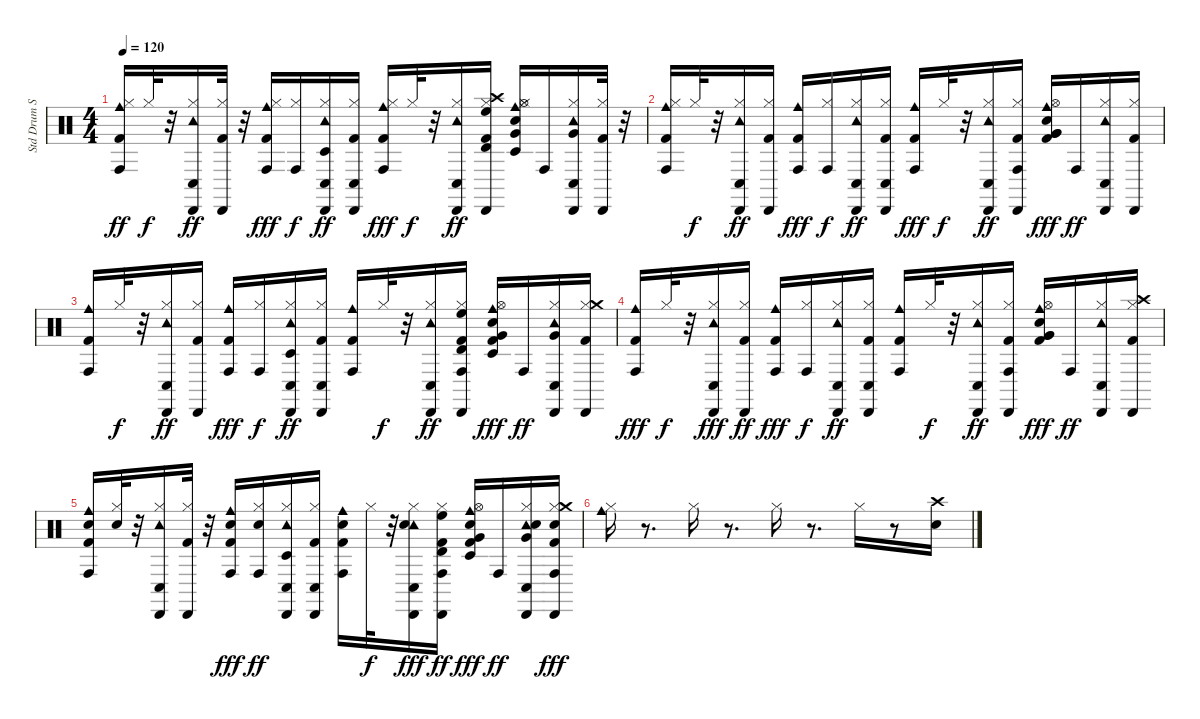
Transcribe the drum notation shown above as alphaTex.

\track ("Std Drum Set" "Std Drum S") {instrument percussion}
\staff {score}
\articulation defaults
\ts (4 4)
\tempo 120
\clef neutral
\ks c
("Hi-Hat (closed)" "Kick (hit) 2" "Cowbell medium (hit)" "Conga high (hit)").16{dy ff} "Hi-Hat (closed)".32{dy f} r.32 ("Hi-Hat (closed)" "Cabasa (hit)" "Tambourine (hit)" "Conga low (hit)").16{dy ff} ("Cabasa (hit)" "Hi-Hat (closed)" "Kick (hit) 2").32 r.32 ("Conga high (hit)" "Kick (hit) 2" "Cowbell medium (hit)" "Hi-Hat (closed)").16{dy fff} ("Conga high (hit)" "Hi-Hat (closed)").16{dy f} ("Hi-Hat (closed)" "Timbale low (hit)" "Cabasa (hit)" "Tambourine (hit)" "Conga low (hit)").16{dy ff} ("Cabasa (hit)" "Conga low (hit)" "Kick (hit) 2" "Hi-Hat (closed)").16 ("Kick (hit) 2" "Cowbell medium (hit)" "Conga high (hit)" "Hi-Hat (closed)").16{dy fff} "Hi-Hat (closed)".32{dy f} r.32 ("Cabasa (hit)" "Tambourine (hit)" "Hi-Hat (closed)" "Conga low (hit)").16{dy ff} ("Hi-Hat (closed)" "High Floor Tom (hit)" "Timbale high (hit)" "Kick (hit) 2" "Cabasa (hit)" "Crash high (hit)").16 ("Timbale low (hit)" "Cowbell medium (hit)" "Very Low Tom (hit)" "Hi-Hat (closed)" "Hi-Hat (open)" "Electric Snare (hit)").16 "Conga high (hit)".16 ("Tambourine (hit)" "Cabasa (hit)" "Conga low (hit)" "Very Low Tom (hit)" "Hi-Hat (closed)").16 ("Kick (hit) 2" "Hi-Hat (closed)" "Cabasa (hit)").32 r.32 |
("Kick (hit) 2" "Hi-Hat (closed)" "Cowbell medium (hit)" "Conga high (hit)").16 "Hi-Hat (closed)".32{dy f} r.32 ("Hi-Hat (closed)" "Tambourine (hit)" "Cabasa (hit)" "Conga low (hit)").16{dy ff} ("Hi-Hat (closed)" "Kick (hit) 2" "Cabasa (hit)").16 ("Conga high (hit)" "Cowbell medium (hit)" "Kick (hit) 2").16{dy fff} ("Hi-Hat (closed)" "Conga high (hit)").16{dy f} ("Hi-Hat (closed)" "Conga low (hit)" "Tambourine (hit)" "Cabasa (hit)").16{dy ff} ("Cabasa (hit)" "Conga low (hit)" "Hi-Hat (closed)" "Kick (hit) 2").16 ("Conga high (hit)" "Kick (hit) 2" "Cowbell medium (hit)").16{dy fff} "Hi-Hat (closed)".32{dy f} r.32 ("Cabasa (hit)" "Conga low (hit)" "Hi-Hat (closed)" "Tambourine (hit)").16{dy ff} ("Conga high (hit)" "Hi-Hat (closed)" "Kick (hit) 2" "Cabasa (hit)").16 ("Kick (hit) 2" "Electric Snare (hit)" "Hi-Hat (open)" "Cowbell medium (hit)" "Very Low Tom (hit)" "Very Low Tom (hit)").16{dy fff} "Conga high (hit)".16{dy ff} ("Cabasa (hit)" "Tambourine (hit)" "Hi-Hat (closed)" "Conga low (hit)").16 ("Hi-Hat (closed)" "Kick (hit) 2" "Cabasa (hit)").16 |
("Cowbell medium (hit)" "Kick (hit) 2" "Conga high (hit)").16 "Hi-Hat (closed)".32{dy f} r.32 ("Hi-Hat (closed)" "Tambourine (hit)" "Conga low (hit)" "Cabasa (hit)").16{dy ff} ("Hi-Hat (closed)" "Cabasa (hit)" "Kick (hit) 2").16 ("Kick (hit) 2" "Conga high (hit)" "Cowbell medium (hit)").16{dy fff} ("Conga high (hit)" "Hi-Hat (closed)").16{dy f} ("Cabasa (hit)" "Conga low (hit)" "Timbale low (hit)" "Hi-Hat (closed)" "Tambourine (hit)").16{dy ff} ("Hi-Hat (closed)" "Kick (hit) 2" "Cabasa (hit)" "Conga low (hit)").16 ("Cowbell medium (hit)" "Kick (hit) 2" "Conga high (hit)").16 "Hi-Hat (closed)".32{dy f} r.32 ("Hi-Hat (closed)" "Cabasa (hit)" "Tambourine (hit)" "Conga low (hit)").16{dy ff} ("Cabasa (hit)" "Conga high (hit)" "Kick (hit) 2" "High Floor Tom (hit)" "Timbale high (hit)" "Hi-Hat (closed)").16 ("Kick (hit) 2" "Cowbell medium (hit)" "Very Low Tom (hit)" "Timbale low (hit)" "Hi-Hat (open)" "Electric Snare (hit)").16{dy fff} "Conga high (hit)".16{dy ff} ("Very Low Tom (hit)" "Conga low (hit)" "Hi-Hat (closed)" "Tambourine (hit)" "Cabasa (hit)").16 ("Hi-Hat (closed)" "Crash medium (hit)" "Cabasa (hit)" "Kick (hit) 2").16 |
("Cowbell medium (hit)" "Conga high (hit)" "Kick (hit) 2").16{dy fff} "Hi-Hat (closed)".32{dy f} r.32 ("Conga low (hit)" "Tambourine (hit)" "Hi-Hat (closed)" "Cabasa (hit)").16{dy fff} ("Cabasa (hit)" "Hi-Hat (closed)" "Kick (hit) 2").16{dy ff} ("Kick (hit) 2" "Conga high (hit)" "Cowbell medium (hit)").16{dy fff} ("Conga high (hit)" "Hi-Hat (closed)").16{dy f} ("Cabasa (hit)" "Tambourine (hit)" "Conga low (hit)" "Hi-Hat (closed)").16{dy ff} ("Kick (hit) 2" "Conga low (hit)" "Cabasa (hit)" "Hi-Hat (closed)").16 ("Kick (hit) 2" "Cowbell medium (hit)" "Conga high (hit)").16 "Hi-Hat (closed)".32{dy f} r.32 ("Conga low (hit)" "Cabasa (hit)" "Hi-Hat (closed)" "Tambourine (hit)").16{dy ff} ("Cabasa (hit)" "Kick (hit) 2" "Hi-Hat (closed)" "Conga high (hit)").16 ("Very Low Tom (hit)" "Very Low Tom (hit)" "Hi-Hat (open)" "Cowbell medium (hit)" "Kick (hit) 2" "Electric Snare (hit)").16{dy fff} "Conga high (hit)".16{dy ff} ("Tambourine (hit)" "Conga low (hit)" "Cabasa (hit)" "Hi-Hat (closed)").16 ("Crash high (hit)" "Kick (hit) 2" "Cabasa (hit)" "Hi-Hat (closed)").16 |
("Conga high (hit)" "Cowbell medium (hit)" "Kick (hit) 2" "Electric Snare (hit)").16 ("Electric Snare (hit)" "Hi-Hat (closed)").32 r.32 ("Tambourine (hit)" "Hi-Hat (closed)" "Cabasa (hit)" "Conga low (hit)").16 ("Hi-Hat (closed)" "Cabasa (hit)" "Kick (hit) 2").32 r.32 ("Cowbell medium (hit)" "Kick (hit) 2" "Conga high (hit)" "Electric Snare (hit)").16{dy fff} ("Electric Snare (hit)" "Conga high (hit)" "Hi-Hat (closed)").16{dy ff} ("Timbale low (hit)" "Conga low (hit)" "Cabasa (hit)" "Tambourine (hit)" "Hi-Hat (closed)").16 ("Conga low (hit)" "Hi-Hat (closed)" "Kick (hit) 2" "Cabasa (hit)").16 ("Cowbell medium (hit)" "Kick (hit) 2" "Electric Snare (hit)" "Conga high (hit)").16 "Hi-Hat (closed)".32{dy f} r.32 ("Conga low (hit)" "Cabasa (hit)" "Tambourine (hit)" "Hi-Hat (closed)" "Electric Snare (hit)").16{dy fff} ("Kick (hit) 2" "Hi-Hat (closed)" "Conga high (hit)" "High Floor Tom (hit)" "Timbale high (hit)" "Cabasa (hit)").16{dy ff} ("Very Low Tom (hit)" "Electric Snare (hit)" "Kick (hit) 2" "Cowbell medium (hit)" "Hi-Hat (open)" "Timbale low (hit)").16{dy fff} "Conga high (hit)".16{dy ff} ("Conga low (hit)" "Cabasa (hit)" "Hi-Hat (closed)" "Tambourine (hit)" "Electric Snare (hit)" "Very Low Tom (hit)").16 ("Electric Snare (hit)" "Cabasa (hit)" "Hi-Hat (closed)" "Kick (hit) 2" "Conga high (hit)" "Crash medium (hit)").16{dy fff} |
("Hi-Hat (closed)" "Cowbell medium (hit)").16 r.8{d} "Hi-Hat (closed)".16 r.8{d} "Hi-Hat (closed)".16 r.8{d} "Hi-Hat (closed)".16 r.8 ("Crash high (hit)" "Electric Snare (hit)").16
